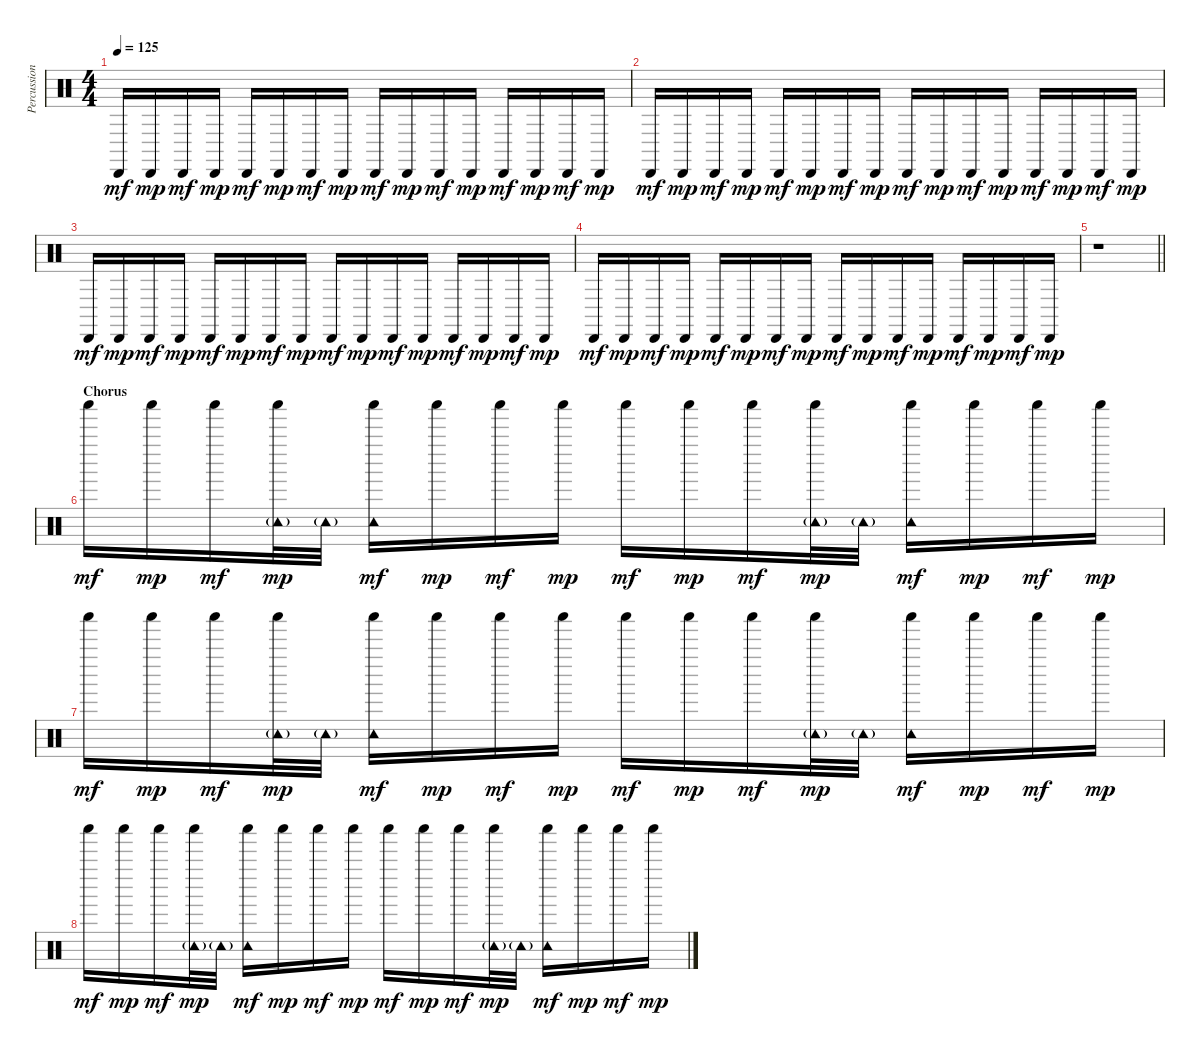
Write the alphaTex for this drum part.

\track ("Percussion" "Percussion") {instrument percussion}
\staff {score}
\articulation defaults
\ts (4 4)
\tempo 125
\clef neutral
\ks c "Cabasa (hit)".16{dy mf} "Cabasa (hit)".16{dy mp} "Cabasa (hit)".16{dy mf} "Cabasa (hit)".16{dy mp} "Cabasa (hit)".16{dy mf} "Cabasa (hit)".16{dy mp} "Cabasa (hit)".16{dy mf} "Cabasa (hit)".16{dy mp} "Cabasa (hit)".16{dy mf} "Cabasa (hit)".16{dy mp} "Cabasa (hit)".16{dy mf} "Cabasa (hit)".16{dy mp} "Cabasa (hit)".16{dy mf} "Cabasa (hit)".16{dy mp} "Cabasa (hit)".16{dy mf} "Cabasa (hit)".16{dy mp}
|
"Cabasa (hit)".16{dy mf} "Cabasa (hit)".16{dy mp} "Cabasa (hit)".16{dy mf} "Cabasa (hit)".16{dy mp} "Cabasa (hit)".16{dy mf} "Cabasa (hit)".16{dy mp} "Cabasa (hit)".16{dy mf} "Cabasa (hit)".16{dy mp} "Cabasa (hit)".16{dy mf} "Cabasa (hit)".16{dy mp} "Cabasa (hit)".16{dy mf} "Cabasa (hit)".16{dy mp} "Cabasa (hit)".16{dy mf} "Cabasa (hit)".16{dy mp} "Cabasa (hit)".16{dy mf} "Cabasa (hit)".16{dy mp} |
"Cabasa (hit)".16{dy mf} "Cabasa (hit)".16{dy mp} "Cabasa (hit)".16{dy mf} "Cabasa (hit)".16{dy mp} "Cabasa (hit)".16{dy mf} "Cabasa (hit)".16{dy mp} "Cabasa (hit)".16{dy mf} "Cabasa (hit)".16{dy mp} "Cabasa (hit)".16{dy mf} "Cabasa (hit)".16{dy mp} "Cabasa (hit)".16{dy mf} "Cabasa (hit)".16{dy mp} "Cabasa (hit)".16{dy mf} "Cabasa (hit)".16{dy mp} "Cabasa (hit)".16{dy mf} "Cabasa (hit)".16{dy mp} |
"Cabasa (hit)".16{dy mf} "Cabasa (hit)".16{dy mp} "Cabasa (hit)".16{dy mf} "Cabasa (hit)".16{dy mp} "Cabasa (hit)".16{dy mf} "Cabasa (hit)".16{dy mp} "Cabasa (hit)".16{dy mf} "Cabasa (hit)".16{dy mp} "Cabasa (hit)".16{dy mf} "Cabasa (hit)".16{dy mp} "Cabasa (hit)".16{dy mf} "Cabasa (hit)".16{dy mp} "Cabasa (hit)".16{dy mf} "Cabasa (hit)".16{dy mp} "Cabasa (hit)".16{dy mf} "Cabasa (hit)".16{dy mp} |
\barLineRight lightlight
r.1 |
\section ("" "Chorus")
"Shaker (hit)".16{dy mf} "Shaker (hit)".16{dy mp} "Shaker (hit)".16{dy mf} ("Tambourine (hit)"{g} "Shaker (hit)").32{dy mp} "Tambourine (hit)"{g}.32 ("Tambourine (hit)" "Shaker (hit)").16{dy mf} "Shaker (hit)".16{dy mp} "Shaker (hit)".16{dy mf} "Shaker (hit)".16{dy mp} "Shaker (hit)".16{dy mf} "Shaker (hit)".16{dy mp} "Shaker (hit)".16{dy mf} ("Tambourine (hit)"{g} "Shaker (hit)").32{dy mp} "Tambourine (hit)"{g}.32 ("Tambourine (hit)" "Shaker (hit)").16{dy mf} "Shaker (hit)".16{dy mp} "Shaker (hit)".16{dy mf} "Shaker (hit)".16{dy mp} |
"Shaker (hit)".16{dy mf} "Shaker (hit)".16{dy mp} "Shaker (hit)".16{dy mf} ("Tambourine (hit)"{g} "Shaker (hit)").32{dy mp} "Tambourine (hit)"{g}.32 ("Tambourine (hit)" "Shaker (hit)").16{dy mf} "Shaker (hit)".16{dy mp} "Shaker (hit)".16{dy mf} "Shaker (hit)".16{dy mp} "Shaker (hit)".16{dy mf} "Shaker (hit)".16{dy mp} "Shaker (hit)".16{dy mf} ("Tambourine (hit)"{g} "Shaker (hit)").32{dy mp} "Tambourine (hit)"{g}.32 ("Tambourine (hit)" "Shaker (hit)").16{dy mf} "Shaker (hit)".16{dy mp} "Shaker (hit)".16{dy mf} "Shaker (hit)".16{dy mp} |
"Shaker (hit)".16{dy mf} "Shaker (hit)".16{dy mp} "Shaker (hit)".16{dy mf} ("Tambourine (hit)"{g} "Shaker (hit)").32{dy mp} "Tambourine (hit)"{g}.32 ("Tambourine (hit)" "Shaker (hit)").16{dy mf} "Shaker (hit)".16{dy mp} "Shaker (hit)".16{dy mf} "Shaker (hit)".16{dy mp} "Shaker (hit)".16{dy mf} "Shaker (hit)".16{dy mp} "Shaker (hit)".16{dy mf} ("Tambourine (hit)"{g} "Shaker (hit)").32{dy mp} "Tambourine (hit)"{g}.32 ("Tambourine (hit)" "Shaker (hit)").16{dy mf} "Shaker (hit)".16{dy mp} "Shaker (hit)".16{dy mf} "Shaker (hit)".16{dy mp}
